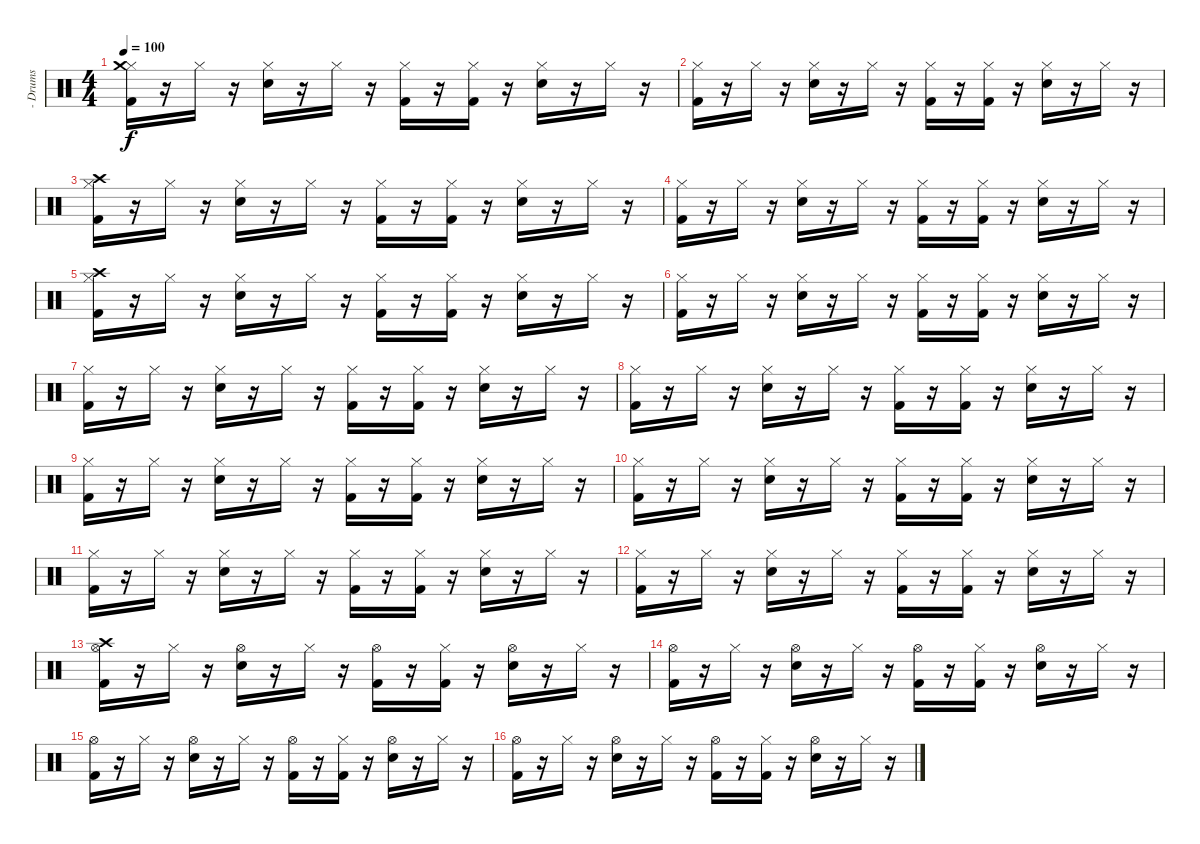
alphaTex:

\track ("- Drums" "- Drums") {instrument percussion}
\staff {score}
\articulation defaults
\ts (4 4)
\tempo 100
\clef neutral
\ks c
("Hi-Hat (closed)" "Crash medium (hit)" "Kick (hit) 2").16{dy f} r.16 "Hi-Hat (closed)".16 r.16 ("Hi-Hat (closed)" "Electric Snare (hit)").16 r.16 "Hi-Hat (closed)".16 r.16 ("Hi-Hat (closed)" "Kick (hit) 2").16 r.16 ("Hi-Hat (closed)" "Kick (hit) 2").16 r.16 ("Hi-Hat (closed)" "Electric Snare (hit)").16 r.16 "Hi-Hat (closed)".16 r.16 |
("Hi-Hat (closed)" "Kick (hit) 2").16 r.16 "Hi-Hat (closed)".16 r.16 ("Hi-Hat (closed)" "Electric Snare (hit)").16 r.16 "Hi-Hat (closed)".16 r.16 ("Hi-Hat (closed)" "Kick (hit) 2").16 r.16 ("Hi-Hat (closed)" "Kick (hit) 2").16 r.16 ("Hi-Hat (closed)" "Electric Snare (hit)").16 r.16 "Hi-Hat (closed)".16 r.16 |
("Hi-Hat (closed)" "Crash high (hit)" "Kick (hit) 2").16 r.16 "Hi-Hat (closed)".16 r.16 ("Hi-Hat (closed)" "Electric Snare (hit)").16 r.16 "Hi-Hat (closed)".16 r.16 ("Hi-Hat (closed)" "Kick (hit) 2").16 r.16 ("Hi-Hat (closed)" "Kick (hit) 2").16 r.16 ("Hi-Hat (closed)" "Electric Snare (hit)").16 r.16 "Hi-Hat (closed)".16 r.16 |
("Hi-Hat (closed)" "Kick (hit) 2").16 r.16 "Hi-Hat (closed)".16 r.16 ("Hi-Hat (closed)" "Electric Snare (hit)").16 r.16 "Hi-Hat (closed)".16 r.16 ("Hi-Hat (closed)" "Kick (hit) 2").16 r.16 ("Hi-Hat (closed)" "Kick (hit) 2").16 r.16 ("Hi-Hat (closed)" "Electric Snare (hit)").16 r.16 "Hi-Hat (closed)".16 r.16 |
("Hi-Hat (closed)" "Crash high (hit)" "Kick (hit) 2").16 r.16 "Hi-Hat (closed)".16 r.16 ("Hi-Hat (closed)" "Electric Snare (hit)").16 r.16 "Hi-Hat (closed)".16 r.16 ("Hi-Hat (closed)" "Kick (hit) 2").16 r.16 ("Hi-Hat (closed)" "Kick (hit) 2").16 r.16 ("Hi-Hat (closed)" "Electric Snare (hit)").16 r.16 "Hi-Hat (closed)".16 r.16 |
("Hi-Hat (closed)" "Kick (hit) 2").16 r.16 "Hi-Hat (closed)".16 r.16 ("Hi-Hat (closed)" "Electric Snare (hit)").16 r.16 "Hi-Hat (closed)".16 r.16 ("Hi-Hat (closed)" "Kick (hit) 2").16 r.16 ("Hi-Hat (closed)" "Kick (hit) 2").16 r.16 ("Hi-Hat (closed)" "Electric Snare (hit)").16 r.16 "Hi-Hat (closed)".16 r.16 |
("Hi-Hat (closed)" "Kick (hit) 2").16 r.16 "Hi-Hat (closed)".16 r.16 ("Hi-Hat (closed)" "Electric Snare (hit)").16 r.16 "Hi-Hat (closed)".16 r.16 ("Hi-Hat (closed)" "Kick (hit) 2").16 r.16 ("Hi-Hat (closed)" "Kick (hit) 2").16 r.16 ("Hi-Hat (closed)" "Electric Snare (hit)").16 r.16 "Hi-Hat (closed)".16 r.16 |
("Hi-Hat (closed)" "Kick (hit) 2").16 r.16 "Hi-Hat (closed)".16 r.16 ("Hi-Hat (closed)" "Electric Snare (hit)").16 r.16 "Hi-Hat (closed)".16 r.16 ("Hi-Hat (closed)" "Kick (hit) 2").16 r.16 ("Hi-Hat (closed)" "Kick (hit) 2").16 r.16 ("Hi-Hat (closed)" "Electric Snare (hit)").16 r.16 "Hi-Hat (closed)".16 r.16 |
("Hi-Hat (closed)" "Kick (hit) 2").16 r.16 "Hi-Hat (closed)".16 r.16 ("Hi-Hat (closed)" "Electric Snare (hit)").16 r.16 "Hi-Hat (closed)".16 r.16 ("Hi-Hat (closed)" "Kick (hit) 2").16 r.16 ("Hi-Hat (closed)" "Kick (hit) 2").16 r.16 ("Hi-Hat (closed)" "Electric Snare (hit)").16 r.16 "Hi-Hat (closed)".16 r.16 |
("Hi-Hat (closed)" "Kick (hit) 2").16 r.16 "Hi-Hat (closed)".16 r.16 ("Hi-Hat (closed)" "Electric Snare (hit)").16 r.16 "Hi-Hat (closed)".16 r.16 ("Hi-Hat (closed)" "Kick (hit) 2").16 r.16 ("Hi-Hat (closed)" "Kick (hit) 2").16 r.16 ("Hi-Hat (closed)" "Electric Snare (hit)").16 r.16 "Hi-Hat (closed)".16 r.16 |
("Hi-Hat (closed)" "Kick (hit) 2").16 r.16 "Hi-Hat (closed)".16 r.16 ("Hi-Hat (closed)" "Electric Snare (hit)").16 r.16 "Hi-Hat (closed)".16 r.16 ("Hi-Hat (closed)" "Kick (hit) 2").16 r.16 ("Hi-Hat (closed)" "Kick (hit) 2").16 r.16 ("Hi-Hat (closed)" "Electric Snare (hit)").16 r.16 "Hi-Hat (closed)".16 r.16 |
("Hi-Hat (closed)" "Kick (hit) 2").16 r.16 "Hi-Hat (closed)".16 r.16 ("Hi-Hat (closed)" "Electric Snare (hit)").16 r.16 "Hi-Hat (closed)".16 r.16 ("Hi-Hat (closed)" "Kick (hit) 2").16 r.16 ("Hi-Hat (closed)" "Kick (hit) 2").16 r.16 ("Hi-Hat (closed)" "Electric Snare (hit)").16 r.16 "Hi-Hat (closed)".16 r.16 |
("Hi-Hat (open)" "Crash high (hit)" "Kick (hit) 2").16 r.16 "Hi-Hat (closed)".16 r.16 ("Hi-Hat (open)" "Electric Snare (hit)").16 r.16 "Hi-Hat (closed)".16 r.16 ("Hi-Hat (open)" "Kick (hit) 2").16 r.16 ("Hi-Hat (closed)" "Kick (hit) 2").16 r.16 ("Hi-Hat (open)" "Electric Snare (hit)").16 r.16 "Hi-Hat (closed)".16 r.16 |
("Hi-Hat (open)" "Kick (hit) 2").16 r.16 "Hi-Hat (closed)".16 r.16 ("Hi-Hat (open)" "Electric Snare (hit)").16 r.16 "Hi-Hat (closed)".16 r.16 ("Hi-Hat (open)" "Kick (hit) 2").16 r.16 ("Hi-Hat (closed)" "Kick (hit) 2").16 r.16 ("Hi-Hat (open)" "Electric Snare (hit)").16 r.16 "Hi-Hat (closed)".16 r.16 |
("Hi-Hat (open)" "Kick (hit) 2").16 r.16 "Hi-Hat (closed)".16 r.16 ("Hi-Hat (open)" "Electric Snare (hit)").16 r.16 "Hi-Hat (closed)".16 r.16 ("Hi-Hat (open)" "Kick (hit) 2").16 r.16 ("Hi-Hat (closed)" "Kick (hit) 2").16 r.16 ("Hi-Hat (open)" "Electric Snare (hit)").16 r.16 "Hi-Hat (closed)".16 r.16 |
("Hi-Hat (open)" "Kick (hit) 2").16 r.16 "Hi-Hat (closed)".16 r.16 ("Hi-Hat (open)" "Electric Snare (hit)").16 r.16 "Hi-Hat (closed)".16 r.16 ("Hi-Hat (open)" "Kick (hit) 2").16 r.16 ("Hi-Hat (closed)" "Kick (hit) 2").16 r.16 ("Hi-Hat (open)" "Electric Snare (hit)").16 r.16 "Hi-Hat (closed)".16 r.16
